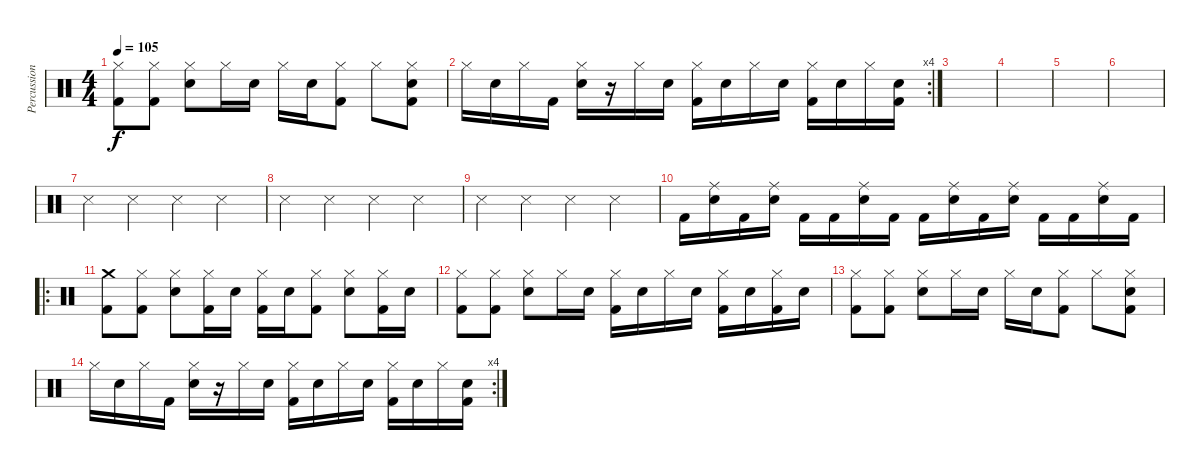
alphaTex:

\track ("Percussion" "Percussion") {instrument percussion}
\staff {score}
\articulation defaults
\ts (4 4)
\tempo 105
\clef neutral
\ks c
("Hi-Hat (closed)" "Kick (hit) 2").8{dy f} ("Hi-Hat (closed)" "Kick (hit) 2").8 ("Hi-Hat (closed)" "Snare (hit) 2").8 "Hi-Hat (closed)".16 "Snare (hit) 2".16 "Hi-Hat (closed)".16 "Snare (hit) 2".16 ("Hi-Hat (closed)" "Kick (hit) 2").8 "Hi-Hat (closed)".8 ("Hi-Hat (closed)" "Snare (hit) 2" "Kick (hit) 2").8 |
\rc 4 "Hi-Hat (closed)".16 "Snare (hit) 2".16 "Hi-Hat (closed)".16 "Kick (hit) 2".16
("Hi-Hat (closed)" "Snare (hit) 2").16 r.16 "Hi-Hat (closed)".16 "Snare (hit) 2".16 ("Hi-Hat (closed)" "Kick (hit) 2").16 "Snare (hit) 2".16 "Hi-Hat (closed)".16 "Snare (hit) 2".16 ("Hi-Hat (closed)" "Kick (hit) 2").16 "Snare (hit) 2".16 "Hi-Hat (closed)".16 ("Snare (hit) 2" "Kick (hit) 2").16 |
|
|
|
|
"Snare (side stick) 3".4 "Snare (side stick) 3".4 "Snare (side stick) 3".4 "Snare (side stick) 3".4 |
"Snare (side stick) 3".4 "Snare (side stick) 3".4 "Snare (side stick) 3".4 "Snare (side stick) 3".4 |
"Snare (side stick) 3".4 "Snare (side stick) 3".4 "Snare (side stick) 3".4 "Snare (side stick) 3".4 |
"Kick (hit) 2".16 ("Ride (middle)" "Snare (hit) 2").16 "Kick (hit) 2".16 ("Ride (middle)" "Snare (hit) 2").16 "Kick (hit) 2".16 "Kick (hit) 2".16 ("Ride (middle)" "Snare (hit) 2").16 "Kick (hit) 2".16 "Kick (hit) 2".16 ("Ride (middle)" "Snare (hit) 2").16 "Kick (hit) 2".16 ("Ride (middle)" "Snare (hit) 2").16 "Kick (hit) 2".16 "Kick (hit) 2".16 ("Ride (middle)" "Snare (hit) 2").16 "Kick (hit) 2".16 |
\ro
("Crash medium (hit)" "Kick (hit) 2").8 ("Hi-Hat (closed)" "Kick (hit) 2").8 ("Hi-Hat (closed)" "Snare (hit) 2").8 ("Hi-Hat (closed)" "Kick (hit) 2").16 "Snare (hit) 2".16 ("Hi-Hat (closed)" "Kick (hit) 2").16 "Snare (hit) 2".16 ("Hi-Hat (closed)" "Kick (hit) 2").8 ("Hi-Hat (closed)" "Snare (hit) 2").8 ("Hi-Hat (closed)" "Kick (hit) 2").16 "Snare (hit) 2".16 |
("Hi-Hat (closed)" "Kick (hit) 2").8 ("Hi-Hat (closed)" "Kick (hit) 2").8 ("Hi-Hat (closed)" "Snare (hit) 2").8 "Hi-Hat (closed)".16 "Snare (hit) 2".16 ("Hi-Hat (closed)" "Kick (hit) 2").16 "Snare (hit) 2".16 "Hi-Hat (closed)".16 "Snare (hit) 2".16 ("Hi-Hat (closed)" "Kick (hit) 2").16 "Snare (hit) 2".16 ("Hi-Hat (closed)" "Kick (hit) 2").16 "Snare (hit) 2".16 |
("Hi-Hat (closed)" "Kick (hit) 2").8 ("Hi-Hat (closed)" "Kick (hit) 2").8 ("Hi-Hat (closed)" "Snare (hit) 2").8 "Hi-Hat (closed)".16 "Snare (hit) 2".16 "Hi-Hat (closed)".16 "Snare (hit) 2".16 ("Hi-Hat (closed)" "Kick (hit) 2").8 "Hi-Hat (closed)".8 ("Hi-Hat (closed)" "Snare (hit) 2" "Kick (hit) 2").8 |
\rc 4 "Hi-Hat (closed)".16 "Snare (hit) 2".16 "Hi-Hat (closed)".16 "Kick (hit) 2".16
("Hi-Hat (closed)" "Snare (hit) 2").16 r.16 "Hi-Hat (closed)".16 "Snare (hit) 2".16 ("Hi-Hat (closed)" "Kick (hit) 2").16 "Snare (hit) 2".16 "Hi-Hat (closed)".16 "Snare (hit) 2".16 ("Hi-Hat (closed)" "Kick (hit) 2").16 "Snare (hit) 2".16 "Hi-Hat (closed)".16 ("Snare (hit) 2" "Kick (hit) 2").16
